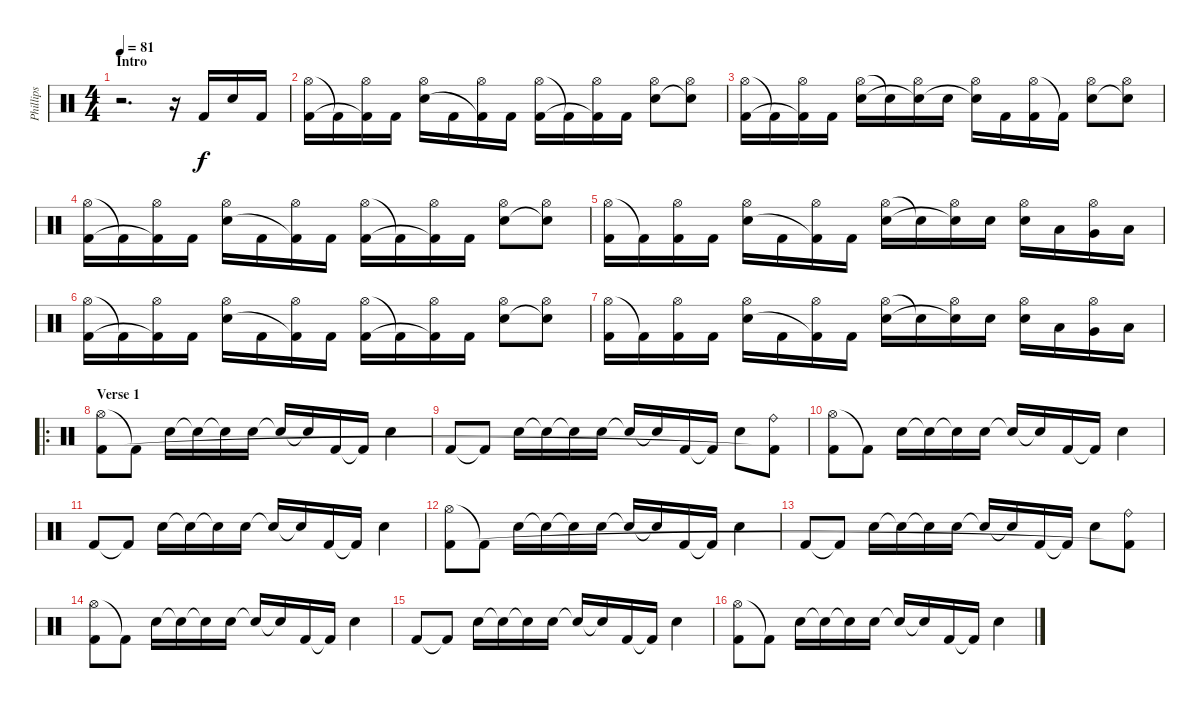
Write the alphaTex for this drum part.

\track ("Phillips" "Phillips") {instrument percussion}
\staff {score}
\articulation defaults
\ts (4 4)
\section ("" "Intro")
\tempo 81
\clef neutral
\ks c
r.2{d dy f} r.16 "Kick (hit) 2".16 "Snare (hit) 2".16 "Kick (hit) 2".16 |
("Hi-Hat (open)" "Kick (hit) 2").16 "Kick (hit) 2"{t}.16 ("Hi-Hat (open)" "Kick (hit) 2"{t}).16 "Kick (hit) 2".16 ("Hi-Hat (open)" "Snare (hit) 2").16 "Kick (hit) 2".16 ("Hi-Hat (open)" "Kick (hit) 2"{t}).16 "Kick (hit) 2".16 ("Hi-Hat (open)" "Kick (hit) 2").16 "Kick (hit) 2"{t}.16 ("Hi-Hat (open)" "Kick (hit) 2"{t}).16 "Kick (hit) 2".16 ("Hi-Hat (open)" "Snare (hit) 2").8 ("Hi-Hat (open)" "Snare (hit) 2"{t}).8 |
("Hi-Hat (open)" "Kick (hit) 2").16 "Kick (hit) 2"{t}.16 ("Hi-Hat (open)" "Kick (hit) 2"{t}).16 "Kick (hit) 2".16 ("Hi-Hat (open)" "Snare (hit) 2").16 "Snare (hit) 2"{t}.16 ("Hi-Hat (open)" "Snare (hit) 2"{t}).16 "Snare (hit) 2".16 ("Hi-Hat (open)" "Snare (hit) 2"{t}).16 "Kick (hit) 2".16 ("Hi-Hat (open)" "Kick (hit) 2").16 "Kick (hit) 2"{t}.16 ("Hi-Hat (open)" "Snare (hit) 2").8 ("Hi-Hat (open)" "Snare (hit) 2"{t}).8 |
("Hi-Hat (open)" "Kick (hit) 2").16 "Kick (hit) 2"{t}.16 ("Hi-Hat (open)" "Kick (hit) 2"{t}).16 "Kick (hit) 2".16 ("Hi-Hat (open)" "Snare (hit) 2").16 "Kick (hit) 2".16 ("Hi-Hat (open)" "Kick (hit) 2"{t}).16 "Kick (hit) 2".16 ("Hi-Hat (open)" "Kick (hit) 2").16 "Kick (hit) 2"{t}.16 ("Hi-Hat (open)" "Kick (hit) 2"{t}).16 "Kick (hit) 2".16 ("Hi-Hat (open)" "Snare (hit) 2").8 ("Hi-Hat (open)" "Snare (hit) 2"{t}).8 |
("Hi-Hat (open)" "Kick (hit) 2").16 "Kick (hit) 2"{t}.16 ("Hi-Hat (open)" "Kick (hit) 2").16 "Kick (hit) 2".16 ("Hi-Hat (open)" "Snare (hit) 2").16 "Kick (hit) 2".16 ("Hi-Hat (open)" "Kick (hit) 2"{t}).16 "Kick (hit) 2".16 ("Hi-Hat (open)" "Snare (hit) 2").16 "Snare (hit) 2"{t}.16 ("Hi-Hat (open)" "Snare (hit) 2"{t}).16 "Snare (hit) 2".16 ("Hi-Hat (open)" "Snare (hit) 2").16 "Low Tom (hit)".16 ("Hi-Hat (open)" "Very Low Tom (hit)").16 "Low Floor Tom (hit)".16 |
("Hi-Hat (open)" "Kick (hit) 2").16 "Kick (hit) 2"{t}.16 ("Hi-Hat (open)" "Kick (hit) 2"{t}).16 "Kick (hit) 2".16 ("Hi-Hat (open)" "Snare (hit) 2").16 "Kick (hit) 2".16 ("Hi-Hat (open)" "Kick (hit) 2"{t}).16 "Kick (hit) 2".16 ("Hi-Hat (open)" "Kick (hit) 2").16 "Kick (hit) 2"{t}.16 ("Hi-Hat (open)" "Kick (hit) 2"{t}).16 "Kick (hit) 2".16 ("Hi-Hat (open)" "Snare (hit) 2").8 ("Hi-Hat (open)" "Snare (hit) 2"{t}).8 |
("Hi-Hat (open)" "Kick (hit) 2").16 "Kick (hit) 2"{t}.16 ("Hi-Hat (open)" "Kick (hit) 2").16 "Kick (hit) 2".16 ("Hi-Hat (open)" "Snare (hit) 2").16 "Kick (hit) 2".16 ("Hi-Hat (open)" "Kick (hit) 2"{t}).16 "Kick (hit) 2".16 ("Hi-Hat (open)" "Snare (hit) 2").16 "Snare (hit) 2"{t}.16 ("Hi-Hat (open)" "Snare (hit) 2"{t}).16 "Snare (hit) 2".16 ("Hi-Hat (open)" "Snare (hit) 2").16 "Low Tom (hit)".16 ("Hi-Hat (open)" "Very Low Tom (hit)").16 "Low Floor Tom (hit)".16 |
\ro
\section ("" "Verse 1")
("Hi-Hat (open)" "Kick (hit) 2").8 "Kick (hit) 2"{t}.8 "Snare (hit) 2".16 "Snare (hit) 2"{t}.16 "Snare (hit) 2"{t}.16 "Snare (hit) 2".16 "Snare (hit) 2"{t}.16 "Snare (hit) 2"{t}.16 "Kick (hit) 2".16 "Kick (hit) 2"{t}.16 "Snare (hit) 2".4 |
"Kick (hit) 2".8 "Kick (hit) 2"{t}.8 "Snare (hit) 2".16 "Snare (hit) 2"{t}.16 "Snare (hit) 2"{t}.16 "Snare (hit) 2".16 "Snare (hit) 2"{t}.16 "Snare (hit) 2"{t}.16 "Kick (hit) 2".16 "Kick (hit) 2"{t}.16 "Snare (hit) 2".8 ("Ride (bell)" "Kick (hit) 2"{t}).8 |
("Hi-Hat (open)" "Kick (hit) 2").8 "Kick (hit) 2"{t}.8 "Snare (hit) 2".16 "Snare (hit) 2"{t}.16 "Snare (hit) 2"{t}.16 "Snare (hit) 2".16 "Snare (hit) 2"{t}.16 "Snare (hit) 2"{t}.16 "Kick (hit) 2".16 "Kick (hit) 2"{t}.16 "Snare (hit) 2".4 |
"Kick (hit) 2".8 "Kick (hit) 2"{t}.8 "Snare (hit) 2".16 "Snare (hit) 2"{t}.16 "Snare (hit) 2"{t}.16 "Snare (hit) 2".16 "Snare (hit) 2"{t}.16 "Snare (hit) 2"{t}.16 "Kick (hit) 2".16 "Kick (hit) 2"{t}.16 "Snare (hit) 2".4 |
("Hi-Hat (open)" "Kick (hit) 2").8 "Kick (hit) 2"{t}.8 "Snare (hit) 2".16 "Snare (hit) 2"{t}.16 "Snare (hit) 2"{t}.16 "Snare (hit) 2".16 "Snare (hit) 2"{t}.16 "Snare (hit) 2"{t}.16 "Kick (hit) 2".16 "Kick (hit) 2"{t}.16 "Snare (hit) 2".4 |
"Kick (hit) 2".8 "Kick (hit) 2"{t}.8 "Snare (hit) 2".16 "Snare (hit) 2"{t}.16 "Snare (hit) 2"{t}.16 "Snare (hit) 2".16 "Snare (hit) 2"{t}.16 "Snare (hit) 2"{t}.16 "Kick (hit) 2".16 "Kick (hit) 2"{t}.16 "Snare (hit) 2".8 ("Ride (bell)" "Kick (hit) 2"{t}).8 |
("Hi-Hat (open)" "Kick (hit) 2").8 "Kick (hit) 2"{t}.8 "Snare (hit) 2".16 "Snare (hit) 2"{t}.16 "Snare (hit) 2"{t}.16 "Snare (hit) 2".16 "Snare (hit) 2"{t}.16 "Snare (hit) 2"{t}.16 "Kick (hit) 2".16 "Kick (hit) 2"{t}.16 "Snare (hit) 2".4 |
"Kick (hit) 2".8 "Kick (hit) 2"{t}.8 "Snare (hit) 2".16 "Snare (hit) 2"{t}.16 "Snare (hit) 2"{t}.16 "Snare (hit) 2".16 "Snare (hit) 2"{t}.16 "Snare (hit) 2"{t}.16 "Kick (hit) 2".16 "Kick (hit) 2"{t}.16 "Snare (hit) 2".4 |
("Hi-Hat (open)" "Kick (hit) 2").8 "Kick (hit) 2"{t}.8 "Snare (hit) 2".16 "Snare (hit) 2"{t}.16 "Snare (hit) 2"{t}.16 "Snare (hit) 2".16 "Snare (hit) 2"{t}.16 "Snare (hit) 2"{t}.16 "Kick (hit) 2".16 "Kick (hit) 2"{t}.16 "Snare (hit) 2".4
